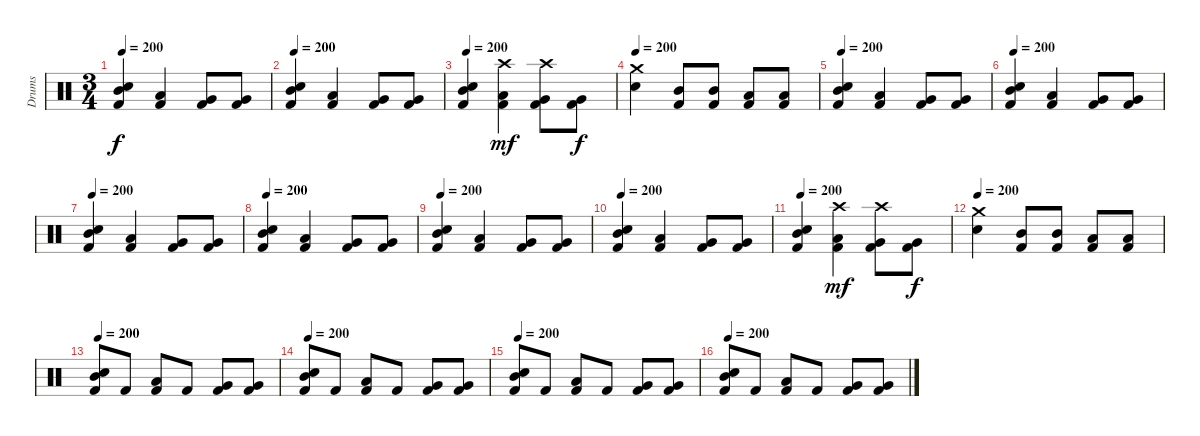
\track ("Drums" "Drums") {instrument percussion}
\staff {score}
\articulation defaults
\ts (3 4)
\tempo 200
\clef neutral
\ks c
("Electric Snare (hit)" "Mid Tom (hit)" "Kick (hit) 2").4{dy f} ("Low Tom (hit)" "Kick (hit) 2").4 ("Very Low Tom (hit)" "Kick (hit) 2").8 ("Very Low Tom (hit)" "Kick (hit) 2").8 |
\tempo 200
("Electric Snare (hit)" "Mid Tom (hit)" "Kick (hit) 2").4 ("Low Tom (hit)" "Kick (hit) 2").4 ("Very Low Tom (hit)" "Kick (hit) 2").8 ("Very Low Tom (hit)" "Kick (hit) 2").8 |
\tempo 200
("Electric Snare (hit)" "Mid Tom (hit)" "Kick (hit) 2").4 ("Crash high (hit)" "Low Tom (hit)" "Kick (hit) 2").4{dy mf} ("Crash high (hit)" "Very Low Tom (hit)" "Kick (hit) 2").8 ("Very Low Tom (hit)" "Kick (hit) 2").8{dy f} |
\tempo 200
("Crash medium (hit)" "Electric Snare (hit)").4 ("Mid Tom (hit)" "Kick (hit) 2").8 ("Mid Tom (hit)" "Kick (hit) 2").8 ("Low Tom (hit)" "Kick (hit) 2").8 ("Low Tom (hit)" "Kick (hit) 2").8 |
\tempo 200
("Electric Snare (hit)" "Mid Tom (hit)" "Kick (hit) 2").4 ("Low Tom (hit)" "Kick (hit) 2").4 ("Very Low Tom (hit)" "Kick (hit) 2").8 ("Very Low Tom (hit)" "Kick (hit) 2").8 |
\tempo 200
("Electric Snare (hit)" "Mid Tom (hit)" "Kick (hit) 2").4 ("Low Tom (hit)" "Kick (hit) 2").4 ("Very Low Tom (hit)" "Kick (hit) 2").8 ("Very Low Tom (hit)" "Kick (hit) 2").8 |
\tempo 200
("Electric Snare (hit)" "Mid Tom (hit)" "Kick (hit) 2").4 ("Low Tom (hit)" "Kick (hit) 2").4 ("Very Low Tom (hit)" "Kick (hit) 2").8 ("Very Low Tom (hit)" "Kick (hit) 2").8 |
\tempo 200
("Electric Snare (hit)" "Mid Tom (hit)" "Kick (hit) 2").4 ("Low Tom (hit)" "Kick (hit) 2").4 ("Very Low Tom (hit)" "Kick (hit) 2").8 ("Very Low Tom (hit)" "Kick (hit) 2").8 |
\tempo 200
("Electric Snare (hit)" "Mid Tom (hit)" "Kick (hit) 2").4 ("Low Tom (hit)" "Kick (hit) 2").4 ("Very Low Tom (hit)" "Kick (hit) 2").8 ("Very Low Tom (hit)" "Kick (hit) 2").8 |
\tempo 200
("Electric Snare (hit)" "Mid Tom (hit)" "Kick (hit) 2").4 ("Low Tom (hit)" "Kick (hit) 2").4 ("Very Low Tom (hit)" "Kick (hit) 2").8 ("Very Low Tom (hit)" "Kick (hit) 2").8 |
\tempo 200
("Electric Snare (hit)" "Mid Tom (hit)" "Kick (hit) 2").4 ("Crash high (hit)" "Low Tom (hit)" "Kick (hit) 2").4{dy mf} ("Crash high (hit)" "Very Low Tom (hit)" "Kick (hit) 2").8 ("Very Low Tom (hit)" "Kick (hit) 2").8{dy f} |
\tempo 200
("Crash medium (hit)" "Electric Snare (hit)").4 ("Mid Tom (hit)" "Kick (hit) 2").8 ("Mid Tom (hit)" "Kick (hit) 2").8 ("Low Tom (hit)" "Kick (hit) 2").8 ("Low Tom (hit)" "Kick (hit) 2").8 |
\tempo 200
("Electric Snare (hit)" "Mid Tom (hit)" "Kick (hit) 2").8 "Kick (hit) 2".8 ("Low Tom (hit)" "Kick (hit) 2").8 "Kick (hit) 2".8 ("Very Low Tom (hit)" "Kick (hit) 2").8 ("Very Low Tom (hit)" "Kick (hit) 2").8 |
\tempo 200
("Electric Snare (hit)" "Mid Tom (hit)" "Kick (hit) 2").8 "Kick (hit) 2".8 ("Low Tom (hit)" "Kick (hit) 2").8 "Kick (hit) 2".8 ("Very Low Tom (hit)" "Kick (hit) 2").8 ("Very Low Tom (hit)" "Kick (hit) 2").8 |
\tempo 200
("Electric Snare (hit)" "Mid Tom (hit)" "Kick (hit) 2").8 "Kick (hit) 2".8 ("Low Tom (hit)" "Kick (hit) 2").8 "Kick (hit) 2".8 ("Very Low Tom (hit)" "Kick (hit) 2").8 ("Very Low Tom (hit)" "Kick (hit) 2").8 |
\tempo 200
("Electric Snare (hit)" "Mid Tom (hit)" "Kick (hit) 2").8 "Kick (hit) 2".8 ("Low Tom (hit)" "Kick (hit) 2").8 "Kick (hit) 2".8 ("Very Low Tom (hit)" "Kick (hit) 2").8 ("Very Low Tom (hit)" "Kick (hit) 2").8
